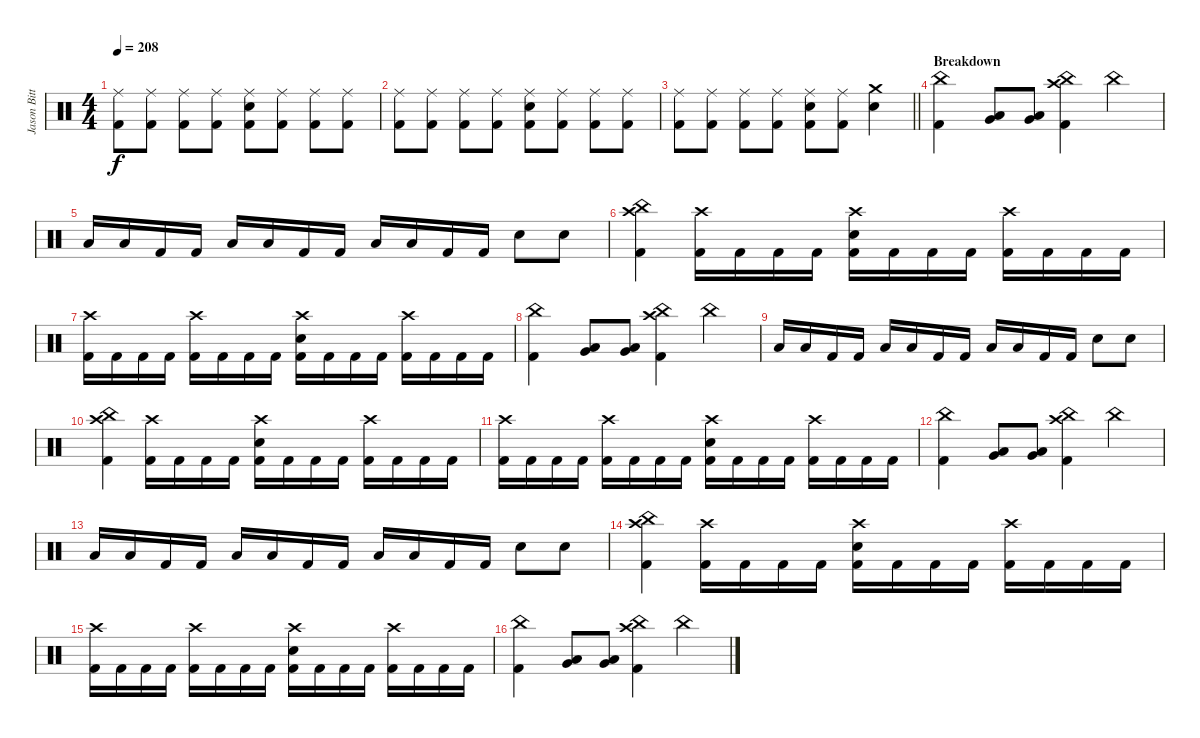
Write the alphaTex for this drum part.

\track ("Jason Bittner" "Jason Bitt") {instrument percussion}
\staff {score}
\articulation defaults
\ts (4 4)
\tempo 208
\clef neutral
\ks c
("Ride (middle)" "Kick (hit) 2").8{dy f} ("Ride (middle)" "Kick (hit) 2").8 ("Ride (middle)" "Kick (hit) 2").8 ("Ride (middle)" "Kick (hit) 2").8 ("Ride (middle)" "Electric Snare (hit)" "Kick (hit) 2").8 ("Ride (middle)" "Kick (hit) 2").8 ("Ride (middle)" "Kick (hit) 2").8 ("Ride (middle)" "Kick (hit) 2").8 |
("Ride (middle)" "Kick (hit) 2").8 ("Ride (middle)" "Kick (hit) 2").8 ("Ride (middle)" "Kick (hit) 2").8 ("Ride (middle)" "Kick (hit) 2").8 ("Ride (middle)" "Electric Snare (hit)" "Kick (hit) 2").8 ("Ride (middle)" "Kick (hit) 2").8 ("Ride (middle)" "Kick (hit) 2").8 ("Ride (middle)" "Kick (hit) 2").8 |
\barLineRight lightlight
("Ride (middle)" "Kick (hit) 2").8 ("Ride (middle)" "Kick (hit) 2").8 ("Ride (middle)" "Kick (hit) 2").8 ("Ride (middle)" "Kick (hit) 2").8 ("Ride (middle)" "Electric Snare (hit)" "Kick (hit) 2").8 ("Ride (middle)" "Kick (hit) 2").8 ("Crash medium (hit)" "Electric Snare (hit)").4 |
\section ("" "Breakdown")
("China (hit)" "Kick (hit) 2").4 ("Very Low Tom (hit)" "Low Floor Tom (hit)").8 ("Very Low Tom (hit)" "Low Floor Tom (hit)").8 ("China (hit)" "Crash high (hit)" "Kick (hit) 2").4 "China (hit)".4 |
"Low Tom (hit)".16 "Low Tom (hit)".16 "Kick (hit) 2".16 "Kick (hit) 2".16 "Low Tom (hit)".16 "Low Tom (hit)".16 "Kick (hit) 2".16 "Kick (hit) 2".16 "Low Tom (hit)".16 "Low Tom (hit)".16 "Kick (hit) 2".16 "Kick (hit) 2".16 "Electric Snare (hit)".8 "Electric Snare (hit)".8 |
("China (hit)" "Crash high (hit)" "Kick (hit) 2").4 ("Crash high (hit)" "Kick (hit) 2").16 "Kick (hit) 2".16 "Kick (hit) 2".16 "Kick (hit) 2".16 ("Crash high (hit)" "Electric Snare (hit)" "Kick (hit) 2").16 "Kick (hit) 2".16 "Kick (hit) 2".16 "Kick (hit) 2".16 ("Crash high (hit)" "Kick (hit) 2").16 "Kick (hit) 2".16 "Kick (hit) 2".16 "Kick (hit) 2".16 |
("Crash high (hit)" "Kick (hit) 2").16 "Kick (hit) 2".16 "Kick (hit) 2".16 "Kick (hit) 2".16 ("Crash high (hit)" "Kick (hit) 2").16 "Kick (hit) 2".16 "Kick (hit) 2".16 "Kick (hit) 2".16 ("Crash high (hit)" "Electric Snare (hit)" "Kick (hit) 2").16 "Kick (hit) 2".16 "Kick (hit) 2".16 "Kick (hit) 2".16 ("Crash high (hit)" "Kick (hit) 2").16 "Kick (hit) 2".16 "Kick (hit) 2".16 "Kick (hit) 2".16 |
("China (hit)" "Kick (hit) 2").4 ("Very Low Tom (hit)" "Low Floor Tom (hit)").8 ("Very Low Tom (hit)" "Low Floor Tom (hit)").8 ("China (hit)" "Crash high (hit)" "Kick (hit) 2").4 "China (hit)".4 |
"Low Tom (hit)".16 "Low Tom (hit)".16 "Kick (hit) 2".16 "Kick (hit) 2".16 "Low Tom (hit)".16 "Low Tom (hit)".16 "Kick (hit) 2".16 "Kick (hit) 2".16 "Low Tom (hit)".16 "Low Tom (hit)".16 "Kick (hit) 2".16 "Kick (hit) 2".16 "Electric Snare (hit)".8 "Electric Snare (hit)".8 |
("China (hit)" "Crash high (hit)" "Kick (hit) 2").4 ("Crash high (hit)" "Kick (hit) 2").16 "Kick (hit) 2".16 "Kick (hit) 2".16 "Kick (hit) 2".16 ("Crash high (hit)" "Electric Snare (hit)" "Kick (hit) 2").16 "Kick (hit) 2".16 "Kick (hit) 2".16 "Kick (hit) 2".16 ("Crash high (hit)" "Kick (hit) 2").16 "Kick (hit) 2".16 "Kick (hit) 2".16 "Kick (hit) 2".16 |
("Crash high (hit)" "Kick (hit) 2").16 "Kick (hit) 2".16 "Kick (hit) 2".16 "Kick (hit) 2".16 ("Crash high (hit)" "Kick (hit) 2").16 "Kick (hit) 2".16 "Kick (hit) 2".16 "Kick (hit) 2".16 ("Crash high (hit)" "Electric Snare (hit)" "Kick (hit) 2").16 "Kick (hit) 2".16 "Kick (hit) 2".16 "Kick (hit) 2".16 ("Crash high (hit)" "Kick (hit) 2").16 "Kick (hit) 2".16 "Kick (hit) 2".16 "Kick (hit) 2".16 |
("China (hit)" "Kick (hit) 2").4 ("Very Low Tom (hit)" "Low Floor Tom (hit)").8 ("Very Low Tom (hit)" "Low Floor Tom (hit)").8 ("China (hit)" "Crash high (hit)" "Kick (hit) 2").4 "China (hit)".4 |
"Low Tom (hit)".16 "Low Tom (hit)".16 "Kick (hit) 2".16 "Kick (hit) 2".16 "Low Tom (hit)".16 "Low Tom (hit)".16 "Kick (hit) 2".16 "Kick (hit) 2".16 "Low Tom (hit)".16 "Low Tom (hit)".16 "Kick (hit) 2".16 "Kick (hit) 2".16 "Electric Snare (hit)".8 "Electric Snare (hit)".8 |
("China (hit)" "Crash high (hit)" "Kick (hit) 2").4 ("Crash high (hit)" "Kick (hit) 2").16 "Kick (hit) 2".16 "Kick (hit) 2".16 "Kick (hit) 2".16 ("Crash high (hit)" "Electric Snare (hit)" "Kick (hit) 2").16 "Kick (hit) 2".16 "Kick (hit) 2".16 "Kick (hit) 2".16 ("Crash high (hit)" "Kick (hit) 2").16 "Kick (hit) 2".16 "Kick (hit) 2".16 "Kick (hit) 2".16 |
("Crash high (hit)" "Kick (hit) 2").16 "Kick (hit) 2".16 "Kick (hit) 2".16 "Kick (hit) 2".16 ("Crash high (hit)" "Kick (hit) 2").16 "Kick (hit) 2".16 "Kick (hit) 2".16 "Kick (hit) 2".16 ("Crash high (hit)" "Electric Snare (hit)" "Kick (hit) 2").16 "Kick (hit) 2".16 "Kick (hit) 2".16 "Kick (hit) 2".16 ("Crash high (hit)" "Kick (hit) 2").16 "Kick (hit) 2".16 "Kick (hit) 2".16 "Kick (hit) 2".16 |
("China (hit)" "Kick (hit) 2").4 ("Very Low Tom (hit)" "Low Floor Tom (hit)").8 ("Very Low Tom (hit)" "Low Floor Tom (hit)").8 ("China (hit)" "Crash high (hit)" "Kick (hit) 2").4 "China (hit)".4
